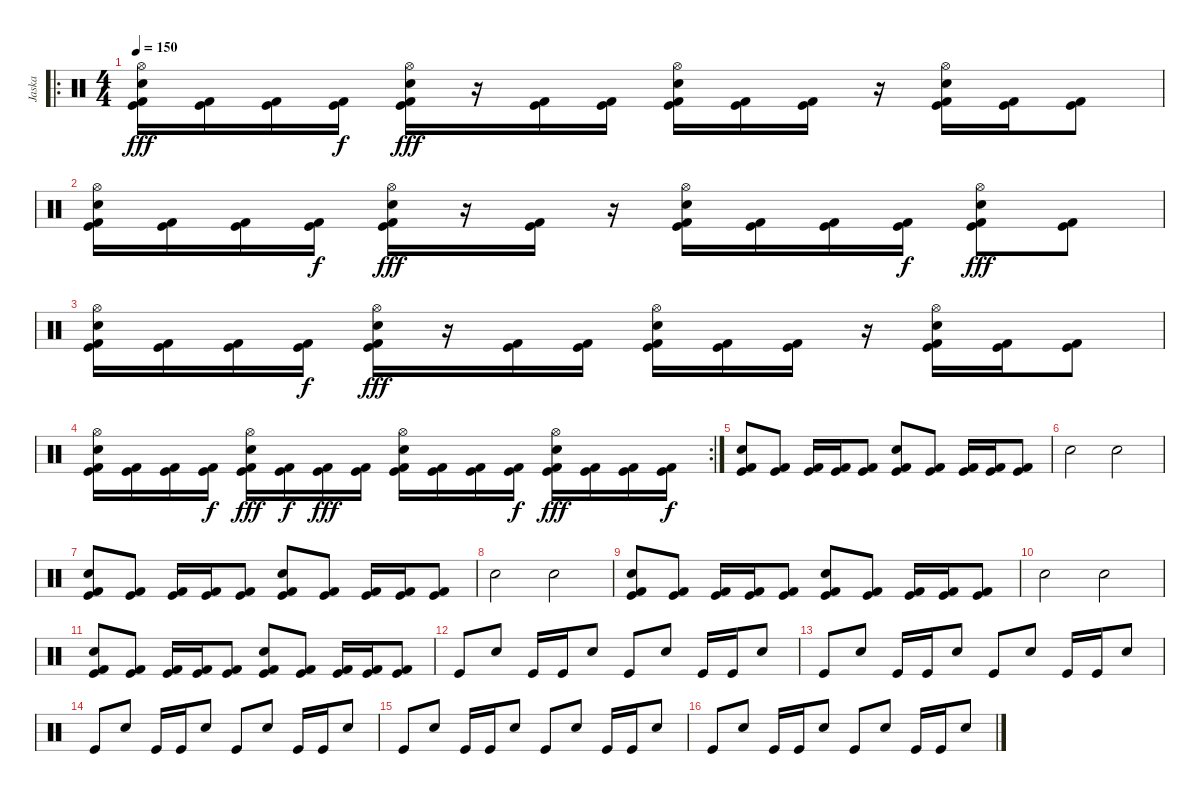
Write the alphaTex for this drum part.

\track ("Jaska" "Jaska") {instrument percussion}
\staff {score}
\articulation defaults
\ro
\ts (4 4)
\tempo 150
\clef neutral
\ks c
("Hi-Hat (open)" "Electric Snare (hit)" "Kick (hit)" "Kick (hit) 2").16{dy fff} ("Kick (hit)" "Kick (hit) 2").16 ("Kick (hit)" "Kick (hit) 2").16 ("Kick (hit)" "Kick (hit) 2").16{dy f} ("Hi-Hat (open)" "Electric Snare (hit)" "Kick (hit)" "Kick (hit) 2").16{dy fff} r.16 ("Kick (hit)" "Kick (hit) 2").16 ("Kick (hit)" "Kick (hit) 2").16 ("Hi-Hat (open)" "Electric Snare (hit)" "Kick (hit)" "Kick (hit) 2").16 ("Kick (hit)" "Kick (hit) 2").16 ("Kick (hit)" "Kick (hit) 2").16 r.16 ("Hi-Hat (open)" "Electric Snare (hit)" "Kick (hit)" "Kick (hit) 2").16 ("Kick (hit)" "Kick (hit) 2").16 ("Kick (hit)" "Kick (hit) 2").8 |
("Hi-Hat (open)" "Electric Snare (hit)" "Kick (hit)" "Kick (hit) 2").16 ("Kick (hit)" "Kick (hit) 2").16 ("Kick (hit)" "Kick (hit) 2").16 ("Kick (hit)" "Kick (hit) 2").16{dy f} ("Hi-Hat (open)" "Electric Snare (hit)" "Kick (hit)" "Kick (hit) 2").16{dy fff} r.16 ("Kick (hit)" "Kick (hit) 2").16 r.16 ("Hi-Hat (open)" "Electric Snare (hit)" "Kick (hit)" "Kick (hit) 2").16 ("Kick (hit)" "Kick (hit) 2").16 ("Kick (hit)" "Kick (hit) 2").16 ("Kick (hit)" "Kick (hit) 2").16{dy f} ("Hi-Hat (open)" "Electric Snare (hit)" "Kick (hit)" "Kick (hit) 2").8{dy fff} ("Kick (hit)" "Kick (hit) 2").8 |
("Hi-Hat (open)" "Electric Snare (hit)" "Kick (hit)" "Kick (hit) 2").16 ("Kick (hit)" "Kick (hit) 2").16 ("Kick (hit)" "Kick (hit) 2").16 ("Kick (hit)" "Kick (hit) 2").16{dy f} ("Hi-Hat (open)" "Electric Snare (hit)" "Kick (hit)" "Kick (hit) 2").16{dy fff} r.16 ("Kick (hit)" "Kick (hit) 2").16 ("Kick (hit)" "Kick (hit) 2").16 ("Hi-Hat (open)" "Electric Snare (hit)" "Kick (hit)" "Kick (hit) 2").16 ("Kick (hit)" "Kick (hit) 2").16 ("Kick (hit)" "Kick (hit) 2").16 r.16 ("Hi-Hat (open)" "Electric Snare (hit)" "Kick (hit)" "Kick (hit) 2").16 ("Kick (hit)" "Kick (hit) 2").16 ("Kick (hit)" "Kick (hit) 2").8 |
\rc 2
("Hi-Hat (open)" "Electric Snare (hit)" "Kick (hit)" "Kick (hit) 2").16 ("Kick (hit)" "Kick (hit) 2").16 ("Kick (hit)" "Kick (hit) 2").16 ("Kick (hit)" "Kick (hit) 2").16{dy f} ("Hi-Hat (open)" "Electric Snare (hit)" "Kick (hit)" "Kick (hit) 2").16{dy fff} ("Kick (hit)" "Kick (hit) 2").16{dy f} ("Kick (hit)" "Kick (hit) 2").16{dy fff} ("Kick (hit)" "Kick (hit) 2").16 ("Hi-Hat (open)" "Electric Snare (hit)" "Kick (hit)" "Kick (hit) 2").16 ("Kick (hit)" "Kick (hit) 2").16 ("Kick (hit)" "Kick (hit) 2").16 ("Kick (hit)" "Kick (hit) 2").16{dy f} ("Hi-Hat (open)" "Electric Snare (hit)" "Kick (hit)" "Kick (hit) 2").16{dy fff} ("Kick (hit)" "Kick (hit) 2").16 ("Kick (hit)" "Kick (hit) 2").16 ("Kick (hit)" "Kick (hit) 2").16{dy f} |
("Electric Snare (hit)" "Kick (hit)" "Kick (hit) 2").8 ("Kick (hit)" "Kick (hit) 2").8 ("Kick (hit)" "Kick (hit) 2").16 ("Kick (hit)" "Kick (hit) 2").16 ("Kick (hit)" "Kick (hit) 2").8 ("Electric Snare (hit)" "Kick (hit)" "Kick (hit) 2").8 ("Kick (hit)" "Kick (hit) 2").8 ("Kick (hit)" "Kick (hit) 2").16 ("Kick (hit)" "Kick (hit) 2").16 ("Kick (hit)" "Kick (hit) 2").8 |
"Electric Snare (hit)".2 "Electric Snare (hit)".2 |
("Electric Snare (hit)" "Kick (hit)" "Kick (hit) 2").8 ("Kick (hit)" "Kick (hit) 2").8 ("Kick (hit)" "Kick (hit) 2").16 ("Kick (hit)" "Kick (hit) 2").16 ("Kick (hit)" "Kick (hit) 2").8 ("Electric Snare (hit)" "Kick (hit)" "Kick (hit) 2").8 ("Kick (hit)" "Kick (hit) 2").8 ("Kick (hit)" "Kick (hit) 2").16 ("Kick (hit)" "Kick (hit) 2").16 ("Kick (hit)" "Kick (hit) 2").8 |
"Electric Snare (hit)".2 "Electric Snare (hit)".2 |
("Electric Snare (hit)" "Kick (hit)" "Kick (hit) 2").8 ("Kick (hit)" "Kick (hit) 2").8 ("Kick (hit)" "Kick (hit) 2").16 ("Kick (hit)" "Kick (hit) 2").16 ("Kick (hit)" "Kick (hit) 2").8 ("Electric Snare (hit)" "Kick (hit)" "Kick (hit) 2").8 ("Kick (hit)" "Kick (hit) 2").8 ("Kick (hit)" "Kick (hit) 2").16 ("Kick (hit)" "Kick (hit) 2").16 ("Kick (hit)" "Kick (hit) 2").8 |
"Electric Snare (hit)".2 "Electric Snare (hit)".2 |
("Electric Snare (hit)" "Kick (hit)" "Kick (hit) 2").8 ("Kick (hit)" "Kick (hit) 2").8 ("Kick (hit)" "Kick (hit) 2").16 ("Kick (hit)" "Kick (hit) 2").16 ("Kick (hit)" "Kick (hit) 2").8 ("Electric Snare (hit)" "Kick (hit)" "Kick (hit) 2").8 ("Kick (hit)" "Kick (hit) 2").8 ("Kick (hit)" "Kick (hit) 2").16 ("Kick (hit)" "Kick (hit) 2").16 ("Kick (hit)" "Kick (hit) 2").8 |
"Kick (hit)".8 "Electric Snare (hit)".8 "Kick (hit)".16 "Kick (hit)".16 "Electric Snare (hit)".8 "Kick (hit)".8 "Electric Snare (hit)".8 "Kick (hit)".16 "Kick (hit)".16 "Electric Snare (hit)".8 |
"Kick (hit)".8 "Electric Snare (hit)".8 "Kick (hit)".16 "Kick (hit)".16 "Electric Snare (hit)".8 "Kick (hit)".8 "Electric Snare (hit)".8 "Kick (hit)".16 "Kick (hit)".16 "Electric Snare (hit)".8 |
"Kick (hit)".8 "Electric Snare (hit)".8 "Kick (hit)".16 "Kick (hit)".16 "Electric Snare (hit)".8 "Kick (hit)".8 "Electric Snare (hit)".8 "Kick (hit)".16 "Kick (hit)".16 "Electric Snare (hit)".8 |
"Kick (hit)".8 "Electric Snare (hit)".8 "Kick (hit)".16 "Kick (hit)".16 "Electric Snare (hit)".8 "Kick (hit)".8 "Electric Snare (hit)".8 "Kick (hit)".16 "Kick (hit)".16 "Electric Snare (hit)".8 |
"Kick (hit)".8 "Electric Snare (hit)".8 "Kick (hit)".16 "Kick (hit)".16 "Electric Snare (hit)".8 "Kick (hit)".8 "Electric Snare (hit)".8 "Kick (hit)".16 "Kick (hit)".16 "Electric Snare (hit)".8
